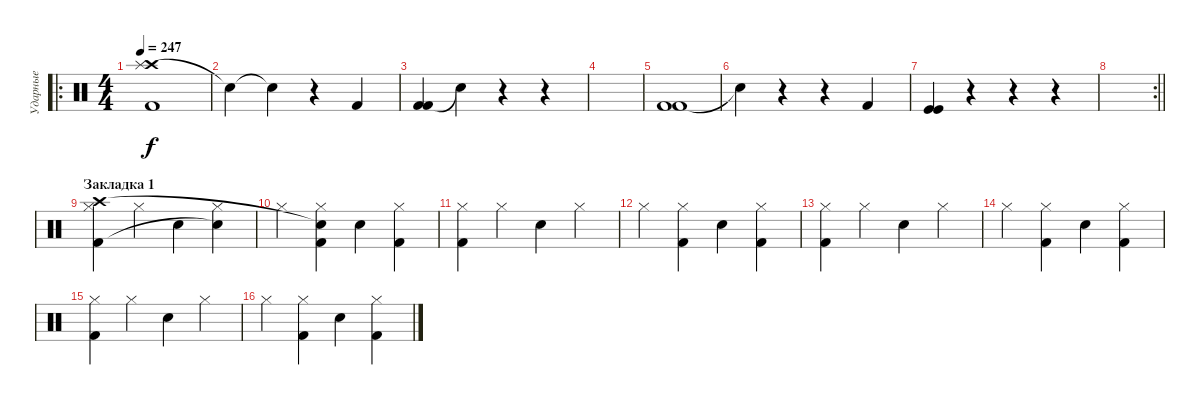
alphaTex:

\track ("Ударные" "Ударные") {instrument percussion}
\staff {score}
\articulation defaults
\ro
\ts (4 4)
\tempo 247
\clef neutral
\ks c
("Crash high (hit)" "Splash (hit)" "Kick (hit) 2").1{dy f} |
"Snare (hit)"{t}.4 "Snare (hit)"{t}.4 r.4 "Kick (hit) 2".4 |
("Kick (hit) 2" "Kick (hit) 2").4 "Snare (hit)"{t}.4 r.4 r.4 |
|
("Kick (hit) 2" "Kick (hit) 2").1 |
"Snare (hit)"{t}.4 r.4 r.4 "Kick (hit) 2".4 |
("Kick (hit)" "Kick (hit)").4 r.4 r.4 r.4 |
\rc 2
\barLineRight lightlight
|
\section ("" "Закладка 1")
("Hi-Hat (closed)" "Kick (hit) 2" "Crash high (hit)").4 "Hi-Hat (closed)".4 "Snare (hit) 2".4 ("Hi-Hat (closed)" "Snare (hit)"{t}).4 |
"Hi-Hat (closed)".4 ("Hi-Hat (closed)" "Kick (hit) 2" "Snare (hit)"{t}).4 "Snare (hit) 2".4 ("Hi-Hat (closed)" "Kick (hit) 2").4 |
("Hi-Hat (closed)" "Kick (hit) 2").4 "Hi-Hat (closed)".4 "Snare (hit) 2".4 "Hi-Hat (closed)".4 |
"Hi-Hat (closed)".4 ("Hi-Hat (closed)" "Kick (hit) 2").4 "Snare (hit) 2".4 ("Hi-Hat (closed)" "Kick (hit) 2").4 |
("Hi-Hat (closed)" "Kick (hit) 2").4 "Hi-Hat (closed)".4 "Snare (hit) 2".4 "Hi-Hat (closed)".4 |
"Hi-Hat (closed)".4 ("Hi-Hat (closed)" "Kick (hit) 2").4 "Snare (hit) 2".4 ("Hi-Hat (closed)" "Kick (hit) 2").4 |
("Hi-Hat (closed)" "Kick (hit) 2").4 "Hi-Hat (closed)".4 "Snare (hit) 2".4 "Hi-Hat (closed)".4 |
"Hi-Hat (closed)".4 ("Hi-Hat (closed)" "Kick (hit) 2").4 "Snare (hit) 2".4 ("Hi-Hat (closed)" "Kick (hit) 2").4
